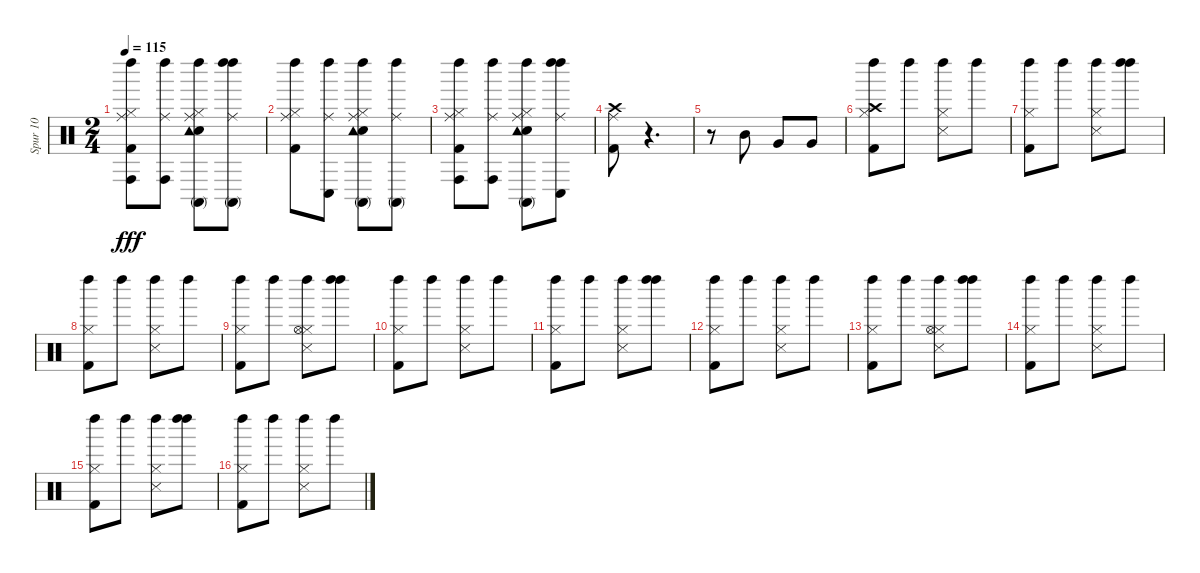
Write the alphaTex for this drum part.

\track ("Spur 10" "Spur 10") {instrument percussion}
\staff {score}
\articulation defaults
\ts (2 4)
\tempo 115
\clef neutral
\ks c
("Left Maraca (hit)" "Hi-Hat (closed)" "Kick (hit) 2" "Conga high (hit)" "Ride (middle)").8{dy fff} ("Left Maraca (hit)" "Conga high (hit)" "Ride (middle)").8 ("Conga high (mute)" "Left Maraca (hit)" "Hi-Hat (closed)" "Electric Snare (hit)" "Tambourine (hit)" "Ride (middle)").8 ("Left Maraca (hit)" "Left Maraca (hit)" "Conga high (mute)" "Ride (middle)").8 |
("Left Maraca (hit)" "Hi-Hat (closed)" "Kick (hit) 2" "Ride (middle)").8 ("Left Maraca (hit)" "Conga low (hit)" "Ride (middle)").8 ("Left Maraca (hit)" "Hi-Hat (closed)" "Electric Snare (hit)" "Tambourine (hit)" "Conga high (mute)" "Ride (middle)").8 ("Left Maraca (hit)" "Conga high (mute)" "Ride (middle)").8 |
("Left Maraca (hit)" "Hi-Hat (closed)" "Kick (hit) 2" "Conga high (hit)" "Ride (middle)").8 ("Left Maraca (hit)" "Conga high (hit)" "Ride (middle)").8 ("Left Maraca (hit)" "Hi-Hat (closed)" "Electric Snare (hit)" "Tambourine (hit)" "Conga high (mute)" "Ride (middle)").8 ("Left Maraca (hit)" "Left Maraca (hit)" "Conga low (hit)" "Ride (middle)").8 |
("Kick (hit) 2" "Crash high (hit)" "Ride (middle)").8 r.4{d} |
r.8 "Mid Tom (hit)".8 "Very Low Tom (hit)".8 "Very Low Tom (hit)".8 |
("Left Maraca (hit)" "Crash high (hit)" "Hi-Hat (closed)" "Kick (hit) 2").8 "Left Maraca (hit)".8 ("Hi-Hat (closed)" "Snare (side stick) 3" "Left Maraca (hit)").8 "Left Maraca (hit)".8 |
("Kick (hit) 2" "Hi-Hat (closed)" "Left Maraca (hit)").8 "Left Maraca (hit)".8 ("Hi-Hat (closed)" "Snare (side stick) 3" "Left Maraca (hit)").8 ("Left Maraca (hit)" "Left Maraca (hit)").8 |
("Kick (hit) 2" "Hi-Hat (closed)" "Left Maraca (hit)").8 "Left Maraca (hit)".8 ("Snare (side stick) 3" "Hi-Hat (closed)" "Left Maraca (hit)").8 "Left Maraca (hit)".8 |
("Kick (hit) 2" "Hi-Hat (closed)" "Left Maraca (hit)").8 "Left Maraca (hit)".8 ("Snare (side stick) 3" "Hi-Hat (closed)" "Hi-Hat (open)" "Left Maraca (hit)").8 ("Left Maraca (hit)" "Left Maraca (hit)").8 |
("Hi-Hat (closed)" "Kick (hit) 2" "Left Maraca (hit)").8 "Left Maraca (hit)".8 ("Hi-Hat (closed)" "Snare (side stick) 3" "Left Maraca (hit)").8 "Left Maraca (hit)".8 |
("Kick (hit) 2" "Hi-Hat (closed)" "Left Maraca (hit)").8 "Left Maraca (hit)".8 ("Hi-Hat (closed)" "Snare (side stick) 3" "Left Maraca (hit)").8 ("Left Maraca (hit)" "Left Maraca (hit)").8 |
("Kick (hit) 2" "Hi-Hat (closed)" "Left Maraca (hit)").8 "Left Maraca (hit)".8 ("Snare (side stick) 3" "Hi-Hat (closed)" "Left Maraca (hit)").8 "Left Maraca (hit)".8 |
("Kick (hit) 2" "Hi-Hat (closed)" "Left Maraca (hit)").8 "Left Maraca (hit)".8 ("Snare (side stick) 3" "Hi-Hat (closed)" "Hi-Hat (open)" "Left Maraca (hit)").8 ("Left Maraca (hit)" "Left Maraca (hit)").8 |
("Hi-Hat (closed)" "Kick (hit) 2" "Left Maraca (hit)").8 "Left Maraca (hit)".8 ("Left Maraca (hit)" "Hi-Hat (closed)" "Snare (side stick) 3").8 "Left Maraca (hit)".8 |
("Kick (hit) 2" "Hi-Hat (closed)" "Left Maraca (hit)").8 "Left Maraca (hit)".8 ("Hi-Hat (closed)" "Snare (side stick) 3" "Left Maraca (hit)").8 ("Left Maraca (hit)" "Left Maraca (hit)").8 |
("Kick (hit) 2" "Hi-Hat (closed)" "Left Maraca (hit)").8 "Left Maraca (hit)".8 ("Snare (side stick) 3" "Hi-Hat (closed)" "Left Maraca (hit)").8 "Left Maraca (hit)".8
